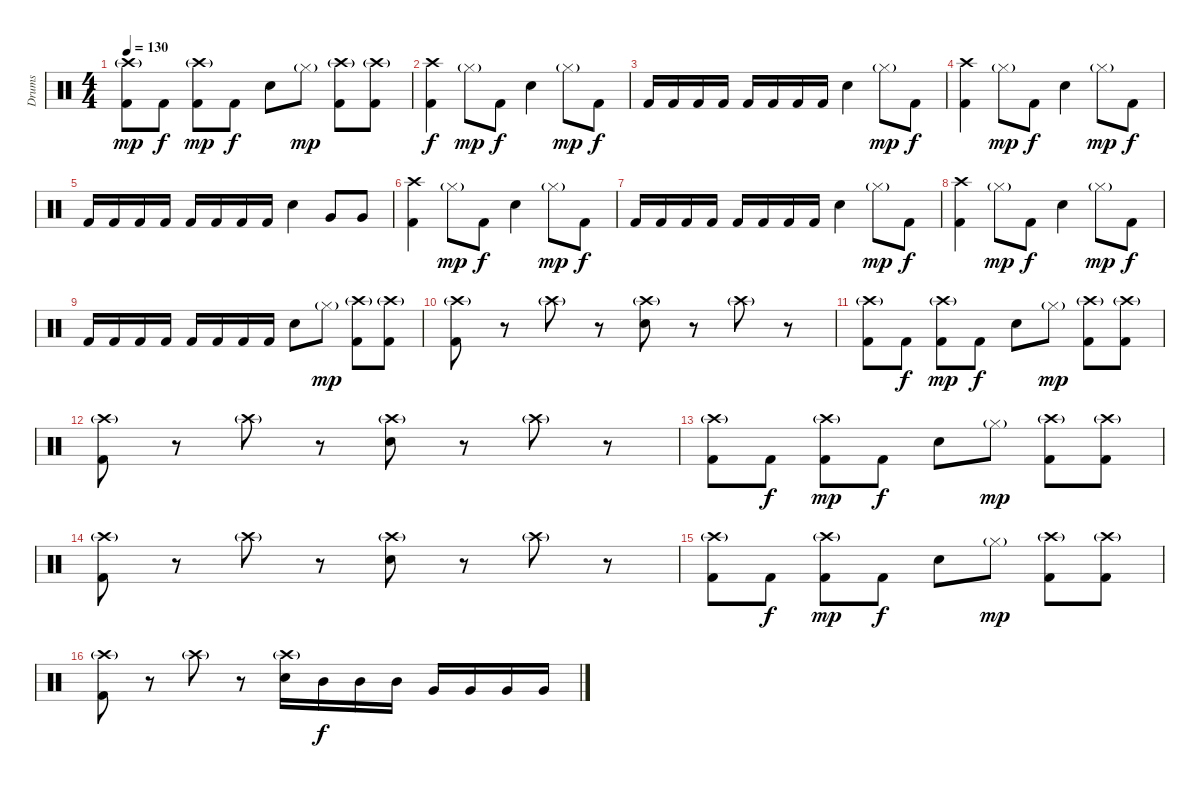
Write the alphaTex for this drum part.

\track ("Drums" "Drums") {instrument percussion}
\staff {score}
\articulation defaults
\ts (4 4)
\tempo 130
\clef neutral
\ks c
("Crash high (hit)"{g} "Kick (hit) 2").8{dy mp} "Kick (hit) 2".8{dy f} ("Crash high (hit)"{g} "Kick (hit) 2").8{dy mp} "Kick (hit) 2".8{dy f} "Snare (hit) 2".8 "Hi-Hat (closed)"{g}.8{dy mp} ("Crash high (hit)"{g} "Kick (hit) 2").8 ("Crash high (hit)"{g} "Kick (hit) 2").8 |
("Crash high (hit)" "Kick (hit) 2").4{dy f} "Hi-Hat (closed)"{g}.8{dy mp} "Kick (hit) 2".8{dy f} "Snare (hit) 2".4 "Hi-Hat (closed)"{g}.8{dy mp} "Kick (hit) 2".8{dy f} |
"Kick (hit) 2".16 "Kick (hit) 2".16 "Kick (hit) 2".16 "Kick (hit) 2".16 "Kick (hit) 2".16 "Kick (hit) 2".16 "Kick (hit) 2".16 "Kick (hit) 2".16 "Snare (hit) 2".4 "Hi-Hat (closed)"{g}.8{dy mp} "Kick (hit) 2".8{dy f} |
("Crash high (hit)" "Kick (hit) 2").4 "Hi-Hat (closed)"{g}.8{dy mp} "Kick (hit) 2".8{dy f} "Snare (hit) 2".4 "Hi-Hat (closed)"{g}.8{dy mp} "Kick (hit) 2".8{dy f} |
"Kick (hit) 2".16 "Kick (hit) 2".16 "Kick (hit) 2".16 "Kick (hit) 2".16 "Kick (hit) 2".16 "Kick (hit) 2".16 "Kick (hit) 2".16 "Kick (hit) 2".16 "Snare (hit) 2".4 "Very Low Tom (hit)".8 "Very Low Tom (hit)".8 |
("Crash high (hit)" "Kick (hit) 2").4 "Hi-Hat (closed)"{g}.8{dy mp} "Kick (hit) 2".8{dy f} "Snare (hit) 2".4 "Hi-Hat (closed)"{g}.8{dy mp} "Kick (hit) 2".8{dy f} |
"Kick (hit) 2".16 "Kick (hit) 2".16 "Kick (hit) 2".16 "Kick (hit) 2".16 "Kick (hit) 2".16 "Kick (hit) 2".16 "Kick (hit) 2".16 "Kick (hit) 2".16 "Snare (hit) 2".4 "Hi-Hat (closed)"{g}.8{dy mp} "Kick (hit) 2".8{dy f} |
("Crash high (hit)" "Kick (hit) 2").4 "Hi-Hat (closed)"{g}.8{dy mp} "Kick (hit) 2".8{dy f} "Snare (hit) 2".4 "Hi-Hat (closed)"{g}.8{dy mp} "Kick (hit) 2".8{dy f} |
"Kick (hit) 2".16 "Kick (hit) 2".16 "Kick (hit) 2".16 "Kick (hit) 2".16 "Kick (hit) 2".16 "Kick (hit) 2".16 "Kick (hit) 2".16 "Kick (hit) 2".16 "Snare (hit) 2".8 "Hi-Hat (closed)"{g}.8{dy mp} ("Crash high (hit)"{g} "Kick (hit) 2").8 ("Crash high (hit)"{g} "Kick (hit) 2").8 |
("Crash high (hit)"{g} "Kick (hit) 2").8 r.8 "Crash high (hit)"{g}.8 r.8 ("Snare (hit) 2" "Crash high (hit)"{g}).8 r.8 "Crash high (hit)"{g}.8 r.8 |
("Crash high (hit)"{g} "Kick (hit) 2").8 "Kick (hit) 2".8{dy f} ("Crash high (hit)"{g} "Kick (hit) 2").8{dy mp} "Kick (hit) 2".8{dy f} "Snare (hit) 2".8 "Hi-Hat (closed)"{g}.8{dy mp} ("Crash high (hit)"{g} "Kick (hit) 2").8 ("Crash high (hit)"{g} "Kick (hit) 2").8 |
("Crash high (hit)"{g} "Kick (hit) 2").8 r.8 "Crash high (hit)"{g}.8 r.8 ("Snare (hit) 2" "Crash high (hit)"{g}).8 r.8 "Crash high (hit)"{g}.8 r.8 |
("Crash high (hit)"{g} "Kick (hit) 2").8 "Kick (hit) 2".8{dy f} ("Crash high (hit)"{g} "Kick (hit) 2").8{dy mp} "Kick (hit) 2".8{dy f} "Snare (hit) 2".8 "Hi-Hat (closed)"{g}.8{dy mp} ("Crash high (hit)"{g} "Kick (hit) 2").8 ("Crash high (hit)"{g} "Kick (hit) 2").8 |
("Crash high (hit)"{g} "Kick (hit) 2").8 r.8 "Crash high (hit)"{g}.8 r.8 ("Snare (hit) 2" "Crash high (hit)"{g}).8 r.8 "Crash high (hit)"{g}.8 r.8 |
("Crash high (hit)"{g} "Kick (hit) 2").8 "Kick (hit) 2".8{dy f} ("Crash high (hit)"{g} "Kick (hit) 2").8{dy mp} "Kick (hit) 2".8{dy f} "Snare (hit) 2".8 "Hi-Hat (closed)"{g}.8{dy mp} ("Crash high (hit)"{g} "Kick (hit) 2").8 ("Crash high (hit)"{g} "Kick (hit) 2").8 |
("Crash high (hit)"{g} "Kick (hit) 2").8 r.8 "Crash high (hit)"{g}.8 r.8 ("Snare (hit) 2" "Crash high (hit)"{g}).16 "Mid Tom (hit)".16{dy f} "Mid Tom (hit)".16 "Mid Tom (hit)".16 "Very Low Tom (hit)".16 "Very Low Tom (hit)".16 "Very Low Tom (hit)".16 "Very Low Tom (hit)".16
